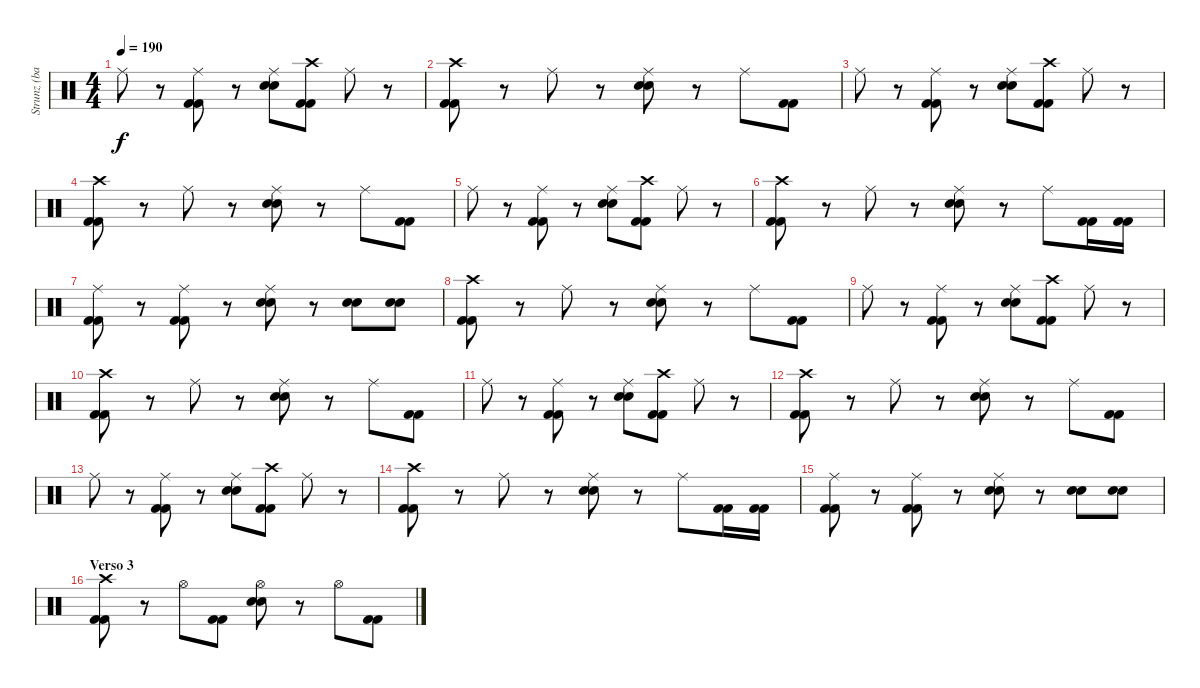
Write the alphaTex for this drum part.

\track ("Strunz (bateria)" "Strunz (ba") {instrument percussion}
\staff {score}
\articulation defaults
\ts (4 4)
\tempo 190
\clef neutral
\ks c "Ride (middle)".8{dy f}
r.8 ("Ride (middle)" "Kick (hit) 2" "Kick (hit) 2").8 r.8 ("Ride (middle)" "Snare (hit) 2" "Snare (hit) 2").8 ("Crash high (hit)" "Kick (hit) 2" "Kick (hit) 2").8 "Ride (middle)".8 r.8 |
("Crash high (hit)" "Kick (hit) 2" "Kick (hit) 2").8 r.8 "Ride (middle)".8 r.8 ("Ride (middle)" "Snare (hit) 2" "Snare (hit) 2").8 r.8 "Ride (middle)".8 ("Kick (hit) 2" "Kick (hit) 2").8 |
"Ride (middle)".8 r.8 ("Ride (middle)" "Kick (hit) 2" "Kick (hit) 2").8 r.8 ("Ride (middle)" "Snare (hit) 2" "Snare (hit) 2").8 ("Crash high (hit)" "Kick (hit) 2" "Kick (hit) 2").8 "Ride (middle)".8 r.8 |
("Crash high (hit)" "Kick (hit) 2" "Kick (hit) 2").8 r.8 "Ride (middle)".8 r.8 ("Ride (middle)" "Snare (hit) 2" "Snare (hit) 2").8 r.8 "Ride (middle)".8 ("Kick (hit) 2" "Kick (hit) 2").8 |
"Ride (middle)".8 r.8 ("Ride (middle)" "Kick (hit) 2" "Kick (hit) 2").8 r.8 ("Ride (middle)" "Snare (hit) 2" "Snare (hit) 2").8 ("Crash high (hit)" "Kick (hit) 2" "Kick (hit) 2").8 "Ride (middle)".8 r.8 |
("Crash high (hit)" "Kick (hit) 2" "Kick (hit) 2").8 r.8 "Ride (middle)".8 r.8 ("Ride (middle)" "Snare (hit) 2" "Snare (hit) 2").8 r.8 "Ride (middle)".8 ("Kick (hit) 2" "Kick (hit) 2").16 ("Kick (hit) 2" "Kick (hit) 2").16 |
("Ride (middle)" "Kick (hit) 2" "Kick (hit) 2").8 r.8 ("Ride (middle)" "Kick (hit) 2" "Kick (hit) 2").8 r.8 ("Ride (middle)" "Snare (hit) 2" "Snare (hit) 2").8 r.8 ("Snare (hit) 2" "Snare (hit) 2").8 ("Snare (hit) 2" "Snare (hit) 2").8 |
("Crash high (hit)" "Kick (hit) 2" "Kick (hit) 2").8 r.8 "Ride (middle)".8 r.8 ("Ride (middle)" "Snare (hit) 2" "Snare (hit) 2").8 r.8 "Ride (middle)".8 ("Kick (hit) 2" "Kick (hit) 2").8 |
"Ride (middle)".8 r.8 ("Ride (middle)" "Kick (hit) 2" "Kick (hit) 2").8 r.8 ("Ride (middle)" "Snare (hit) 2" "Snare (hit) 2").8 ("Crash high (hit)" "Kick (hit) 2" "Kick (hit) 2").8 "Ride (middle)".8 r.8 |
("Crash high (hit)" "Kick (hit) 2" "Kick (hit) 2").8 r.8 "Ride (middle)".8 r.8 ("Ride (middle)" "Snare (hit) 2" "Snare (hit) 2").8 r.8 "Ride (middle)".8 ("Kick (hit) 2" "Kick (hit) 2").8 |
"Ride (middle)".8 r.8 ("Ride (middle)" "Kick (hit) 2" "Kick (hit) 2").8 r.8 ("Ride (middle)" "Snare (hit) 2" "Snare (hit) 2").8 ("Crash high (hit)" "Kick (hit) 2" "Kick (hit) 2").8 "Ride (middle)".8 r.8 |
("Crash high (hit)" "Kick (hit) 2" "Kick (hit) 2").8 r.8 "Ride (middle)".8 r.8 ("Ride (middle)" "Snare (hit) 2" "Snare (hit) 2").8 r.8 "Ride (middle)".8 ("Kick (hit) 2" "Kick (hit) 2").8 |
"Ride (middle)".8 r.8 ("Ride (middle)" "Kick (hit) 2" "Kick (hit) 2").8 r.8 ("Ride (middle)" "Snare (hit) 2" "Snare (hit) 2").8 ("Crash high (hit)" "Kick (hit) 2" "Kick (hit) 2").8 "Ride (middle)".8 r.8 |
("Crash high (hit)" "Kick (hit) 2" "Kick (hit) 2").8 r.8 "Ride (middle)".8 r.8 ("Ride (middle)" "Snare (hit) 2" "Snare (hit) 2").8 r.8 "Ride (middle)".8 ("Kick (hit) 2" "Kick (hit) 2").16 ("Kick (hit) 2" "Kick (hit) 2").16 |
("Ride (middle)" "Kick (hit) 2" "Kick (hit) 2").8 r.8 ("Ride (middle)" "Kick (hit) 2" "Kick (hit) 2").8 r.8 ("Ride (middle)" "Snare (hit) 2" "Snare (hit) 2").8 r.8 ("Snare (hit) 2" "Snare (hit) 2").8 ("Snare (hit) 2" "Snare (hit) 2").8 |
\section ("" "Verso 3")
("Crash high (hit)" "Kick (hit) 2" "Kick (hit) 2").8 r.8 "Hi-Hat (open)".8 ("Kick (hit) 2" "Kick (hit) 2").8 ("Hi-Hat (open)" "Snare (hit) 2" "Snare (hit) 2").8 r.8 "Hi-Hat (open)".8 ("Kick (hit) 2" "Kick (hit) 2").8
